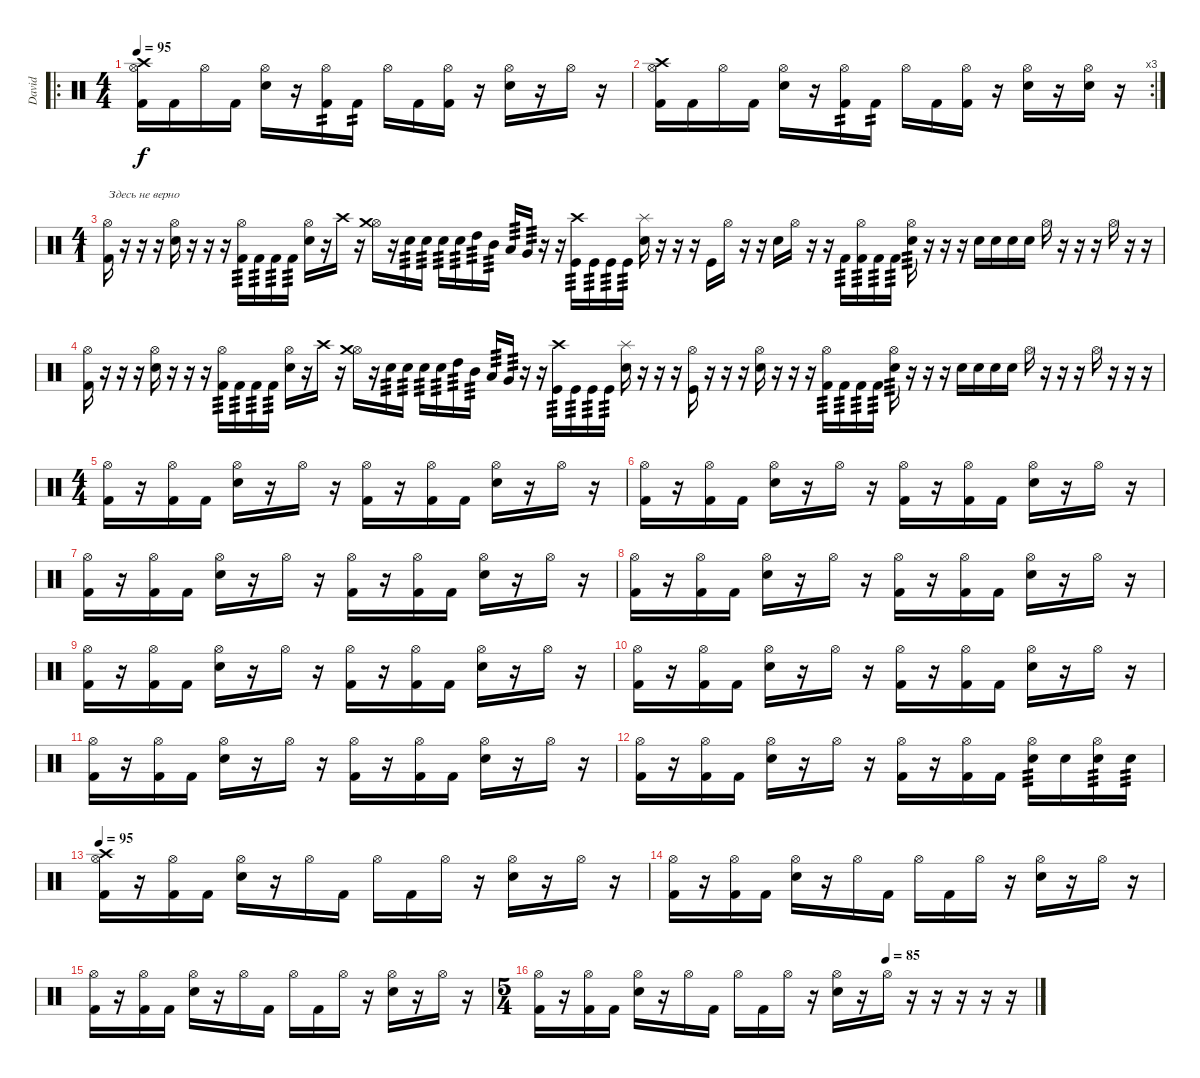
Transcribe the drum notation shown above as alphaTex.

\track ("David" "David") {instrument percussion}
\staff {score}
\articulation defaults
\ro
\ts (4 4)
\tempo 95
\clef neutral
\ks c
("Hi-Hat (open)" "Crash high (hit)" "Kick (hit) 2").16{dy f} "Kick (hit) 2".16 "Hi-Hat (open)".16 "Kick (hit) 2".16 ("Hi-Hat (open)" "Snare (hit) 2").16 r.16 ("Hi-Hat (open)" "Kick (hit) 2").16{tp 2} "Kick (hit) 2".16{tp 2} "Hi-Hat (open)".16 "Kick (hit) 2".16 ("Hi-Hat (open)" "Kick (hit) 2").16 r.16 ("Hi-Hat (open)" "Snare (hit) 2").16 r.16 "Hi-Hat (open)".16 r.16 |
\rc 3
("Hi-Hat (open)" "Crash high (hit)" "Kick (hit) 2").16 "Kick (hit) 2".16 "Hi-Hat (open)".16 "Kick (hit) 2".16 ("Hi-Hat (open)" "Snare (hit) 2").16 r.16 ("Hi-Hat (open)" "Kick (hit) 2").16{tp 2} "Kick (hit) 2".16{tp 2} "Hi-Hat (open)".16 "Kick (hit) 2".16 ("Hi-Hat (open)" "Kick (hit) 2").16 r.16 ("Hi-Hat (open)" "Snare (hit) 2").16 r.16 ("Hi-Hat (open)" "Snare (hit) 2").16 r.16 |
\ts (4 1)
("Hi-Hat (open)" "Kick (hit) 2").16{txt "Здесь не верно "} r.16 r.16 r.16 ("Hi-Hat (open)" "Snare (hit) 2").16 r.16 r.16 r.16 ("Hi-Hat (open)" "Kick (hit) 2").16{tp 3} "Kick (hit) 2".16{tp 3} "Kick (hit) 2".16{tp 3} "Kick (hit) 2".16{tp 3} ("Hi-Hat (open)" "Snare (hit) 2").16 r.16 "Crash high (hit)".16 r.16 ("Hi-Hat (open)" "Crash medium (hit)").16 r.16 "Snare (hit) 2".16{tp 3} "Snare (hit) 2".16{tp 3} "Snare (hit) 2".16{tp 3} "Snare (hit) 2".16{tp 3} "High Tom (hit)".16{tp 3} "Mid Tom (hit)".16{tp 3} "Low Tom (hit)".16{tp 3} "Very Low Tom (hit)".16{tp 3} r.16 r.16 ("Crash high (hit)" "Kick (hit)").16{tp 3} "Kick (hit)".16{tp 3} "Kick (hit)".16{tp 3} "Kick (hit)".16{tp 3} ("Splash (hit)" "Snare (hit) 2").16 r.16 r.16 r.16 "Kick (hit)".16 "Hi-Hat (open)".16 r.16 r.16 "Snare (hit) 2".16 "Hi-Hat (open)".16 r.16 r.16 "Kick (hit) 2".16{tp 3} ("Kick (hit) 2" "Hi-Hat (open)").16{tp 3} "Kick (hit) 2".16{tp 3} "Kick (hit) 2".16{tp 3} ("Hi-Hat (open)" "Snare (hit) 2").16{tp 3} r.16 r.16 r.16 "Snare (hit) 2".16 "Snare (hit) 2".16 "Snare (hit) 2".16 "Snare (hit) 2".16 "Hi-Hat (open)".16 r.16 r.16 r.16 "Hi-Hat (open)".16 r.16 r.16 |
("Hi-Hat (open)" "Kick (hit) 2").16 r.16 r.16 r.16 ("Hi-Hat (open)" "Snare (hit) 2").16 r.16 r.16 r.16 ("Hi-Hat (open)" "Kick (hit) 2").16{tp 3} "Kick (hit) 2".16{tp 3} "Kick (hit) 2".16{tp 3} "Kick (hit) 2".16{tp 3} ("Hi-Hat (open)" "Snare (hit) 2").16 r.16 "Crash high (hit)".16 r.16 ("Hi-Hat (open)" "Crash medium (hit)").16 r.16 "Snare (hit) 2".16{tp 3} "Snare (hit) 2".16{tp 3} "Snare (hit) 2".16{tp 3} "Snare (hit) 2".16{tp 3} "High Tom (hit)".16{tp 3} "Mid Tom (hit)".16{tp 3} "Low Tom (hit)".16{tp 3} "Very Low Tom (hit)".16{tp 3} r.16 r.16 ("Crash high (hit)" "Kick (hit)").16{tp 3} "Kick (hit)".16{tp 3} "Kick (hit)".16{tp 3} "Kick (hit)".16{tp 3} ("Splash (hit)" "Snare (hit) 2").16 r.16 r.16 r.16 ("Hi-Hat (open)" "Kick (hit)").16 r.16 r.16 r.16 ("Hi-Hat (open)" "Snare (hit) 2").16 r.16 r.16 r.16 ("Hi-Hat (open)" "Kick (hit) 2").16{tp 3} "Kick (hit) 2".16{tp 3} "Kick (hit) 2".16{tp 3} "Kick (hit) 2".16{tp 3} ("Hi-Hat (open)" "Snare (hit) 2").16{tp 3} r.16 r.16 r.16 "Snare (hit) 2".16 "Snare (hit) 2".16 "Snare (hit) 2".16 "Snare (hit) 2".16 "Hi-Hat (open)".16 r.16 r.16 r.16 "Hi-Hat (open)".16 r.16 r.16 r.16 |
\ts (4 4)
("Hi-Hat (open)" "Kick (hit) 2").16 r.16 ("Hi-Hat (open)" "Kick (hit) 2").16 "Kick (hit) 2".16 ("Hi-Hat (open)" "Snare (hit) 2").16 r.16 "Hi-Hat (open)".16 r.16 ("Hi-Hat (open)" "Kick (hit) 2").16 r.16 ("Hi-Hat (open)" "Kick (hit) 2").16 "Kick (hit) 2".16 ("Hi-Hat (open)" "Snare (hit) 2").16 r.16 "Hi-Hat (open)".16 r.16 |
("Hi-Hat (open)" "Kick (hit) 2").16 r.16 ("Hi-Hat (open)" "Kick (hit) 2").16 "Kick (hit) 2".16 ("Hi-Hat (open)" "Snare (hit) 2").16 r.16 "Hi-Hat (open)".16 r.16 ("Hi-Hat (open)" "Kick (hit) 2").16 r.16 ("Hi-Hat (open)" "Kick (hit) 2").16 "Kick (hit) 2".16 ("Hi-Hat (open)" "Snare (hit) 2").16 r.16 "Hi-Hat (open)".16 r.16 |
("Hi-Hat (open)" "Kick (hit) 2").16 r.16 ("Hi-Hat (open)" "Kick (hit) 2").16 "Kick (hit) 2".16 ("Hi-Hat (open)" "Snare (hit) 2").16 r.16 "Hi-Hat (open)".16 r.16 ("Hi-Hat (open)" "Kick (hit) 2").16 r.16 ("Hi-Hat (open)" "Kick (hit) 2").16 "Kick (hit) 2".16 ("Hi-Hat (open)" "Snare (hit) 2").16 r.16 "Hi-Hat (open)".16 r.16 |
("Hi-Hat (open)" "Kick (hit) 2").16 r.16 ("Hi-Hat (open)" "Kick (hit) 2").16 "Kick (hit) 2".16 ("Hi-Hat (open)" "Snare (hit) 2").16 r.16 "Hi-Hat (open)".16 r.16 ("Hi-Hat (open)" "Kick (hit) 2").16 r.16 ("Hi-Hat (open)" "Kick (hit) 2").16 "Kick (hit) 2".16 ("Hi-Hat (open)" "Snare (hit) 2").16 r.16 "Hi-Hat (open)".16 r.16 |
("Hi-Hat (open)" "Kick (hit) 2").16 r.16 ("Hi-Hat (open)" "Kick (hit) 2").16 "Kick (hit) 2".16 ("Hi-Hat (open)" "Snare (hit) 2").16 r.16 "Hi-Hat (open)".16 r.16 ("Hi-Hat (open)" "Kick (hit) 2").16 r.16 ("Hi-Hat (open)" "Kick (hit) 2").16 "Kick (hit) 2".16 ("Hi-Hat (open)" "Snare (hit) 2").16 r.16 "Hi-Hat (open)".16 r.16 |
("Hi-Hat (open)" "Kick (hit) 2").16 r.16 ("Hi-Hat (open)" "Kick (hit) 2").16 "Kick (hit) 2".16 ("Hi-Hat (open)" "Snare (hit) 2").16 r.16 "Hi-Hat (open)".16 r.16 ("Hi-Hat (open)" "Kick (hit) 2").16 r.16 ("Hi-Hat (open)" "Kick (hit) 2").16 "Kick (hit) 2".16 ("Hi-Hat (open)" "Snare (hit) 2").16 r.16 "Hi-Hat (open)".16 r.16 |
("Hi-Hat (open)" "Kick (hit) 2").16 r.16 ("Hi-Hat (open)" "Kick (hit) 2").16 "Kick (hit) 2".16 ("Hi-Hat (open)" "Snare (hit) 2").16 r.16 "Hi-Hat (open)".16 r.16 ("Hi-Hat (open)" "Kick (hit) 2").16 r.16 ("Hi-Hat (open)" "Kick (hit) 2").16 "Kick (hit) 2".16 ("Hi-Hat (open)" "Snare (hit) 2").16 r.16 "Hi-Hat (open)".16 r.16 |
("Hi-Hat (open)" "Kick (hit) 2").16 r.16 ("Hi-Hat (open)" "Kick (hit) 2").16 "Kick (hit) 2".16 ("Hi-Hat (open)" "Snare (hit) 2").16 r.16 "Hi-Hat (open)".16 r.16 ("Hi-Hat (open)" "Kick (hit) 2").16 r.16 ("Hi-Hat (open)" "Kick (hit) 2").16 "Kick (hit) 2".16 ("Hi-Hat (open)" "Snare (hit) 2").16{tp 3} "Snare (hit) 2".16 ("Hi-Hat (open)" "Snare (hit) 2").16{tp 3} "Snare (hit) 2".16{tp 3} |
\tempo 95
("Hi-Hat (open)" "Kick (hit) 2" "Crash high (hit)").16 r.16 ("Hi-Hat (open)" "Kick (hit) 2").16 "Kick (hit) 2".16 ("Hi-Hat (open)" "Snare (hit) 2").16 r.16 "Hi-Hat (open)".16 "Kick (hit) 2".16 "Hi-Hat (open)".16 "Kick (hit) 2".16 "Hi-Hat (open)".16 r.16 ("Hi-Hat (open)" "Snare (hit) 2").16 r.16 "Hi-Hat (open)".16 r.16 |
("Hi-Hat (open)" "Kick (hit) 2").16 r.16 ("Hi-Hat (open)" "Kick (hit) 2").16 "Kick (hit) 2".16 ("Hi-Hat (open)" "Snare (hit) 2").16 r.16 "Hi-Hat (open)".16 "Kick (hit) 2".16 "Hi-Hat (open)".16 "Kick (hit) 2".16 "Hi-Hat (open)".16 r.16 ("Hi-Hat (open)" "Snare (hit) 2").16 r.16 "Hi-Hat (open)".16 r.16 |
("Hi-Hat (open)" "Kick (hit) 2").16 r.16 ("Hi-Hat (open)" "Kick (hit) 2").16 "Kick (hit) 2".16 ("Hi-Hat (open)" "Snare (hit) 2").16 r.16 "Hi-Hat (open)".16 "Kick (hit) 2".16 "Hi-Hat (open)".16 "Kick (hit) 2".16 "Hi-Hat (open)".16 r.16 ("Hi-Hat (open)" "Snare (hit) 2").16 r.16 "Hi-Hat (open)".16 r.16 |
\ts (5 4)
\tempo (85 0.7)
("Hi-Hat (open)" "Kick (hit) 2").16 r.16 ("Hi-Hat (open)" "Kick (hit) 2").16 "Kick (hit) 2".16 ("Hi-Hat (open)" "Snare (hit) 2").16 r.16 "Hi-Hat (open)".16 "Kick (hit) 2".16 "Hi-Hat (open)".16 "Kick (hit) 2".16 "Hi-Hat (open)".16 r.16 ("Hi-Hat (open)" "Snare (hit) 2").16 r.16 "Hi-Hat (open)".16 r.16 r.16 r.16 r.16 r.16
